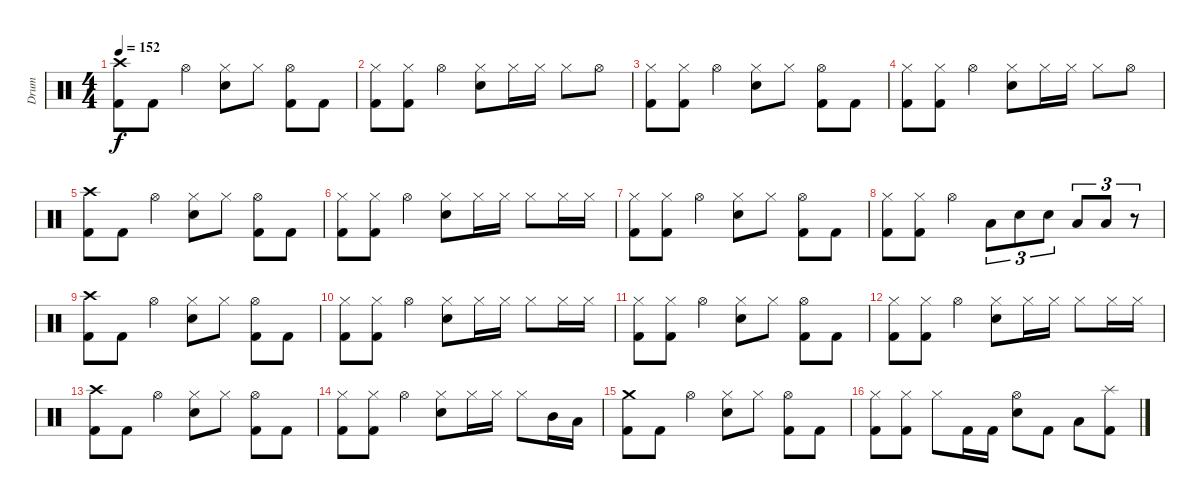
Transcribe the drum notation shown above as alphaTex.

\track ("Drum" "Drum") {instrument percussion}
\staff {score}
\articulation defaults
\ts (4 4)
\tempo 152
\clef neutral
\ks c
("Crash high (hit)" "Kick (hit) 2").8{dy f} "Kick (hit) 2".8 "Hi-Hat (open)".4 ("Hi-Hat (closed)" "Snare (hit) 2").8 "Hi-Hat (closed)".8 ("Hi-Hat (open)" "Kick (hit) 2").8 "Kick (hit) 2".8 |
("Hi-Hat (closed)" "Kick (hit) 2").8 ("Hi-Hat (closed)" "Kick (hit) 2").8 "Hi-Hat (open)".4 ("Hi-Hat (closed)" "Snare (hit) 2").8 "Hi-Hat (closed)".16 "Hi-Hat (closed)".16 "Hi-Hat (closed)".8 "Hi-Hat (open)".8 |
("Hi-Hat (closed)" "Kick (hit) 2").8 ("Hi-Hat (closed)" "Kick (hit) 2").8 "Hi-Hat (open)".4 ("Hi-Hat (closed)" "Snare (hit) 2").8 "Hi-Hat (closed)".8 ("Hi-Hat (open)" "Kick (hit) 2").8 "Kick (hit) 2".8 |
("Hi-Hat (closed)" "Kick (hit) 2").8 ("Hi-Hat (closed)" "Kick (hit) 2").8 "Hi-Hat (open)".4 ("Hi-Hat (closed)" "Snare (hit) 2").8 "Hi-Hat (closed)".16 "Hi-Hat (closed)".16 "Hi-Hat (closed)".8 "Hi-Hat (open)".8 |
("Crash high (hit)" "Kick (hit) 2").8 "Kick (hit) 2".8 "Hi-Hat (open)".4 ("Hi-Hat (closed)" "Snare (hit) 2").8 "Hi-Hat (closed)".8 ("Hi-Hat (open)" "Kick (hit) 2").8 "Kick (hit) 2".8 |
("Hi-Hat (closed)" "Kick (hit) 2").8 ("Hi-Hat (closed)" "Kick (hit) 2").8 "Hi-Hat (open)".4 ("Hi-Hat (closed)" "Snare (hit) 2").8 "Hi-Hat (closed)".16 "Hi-Hat (closed)".16 "Hi-Hat (closed)".8 "Hi-Hat (closed)".16 "Hi-Hat (closed)".16 |
("Hi-Hat (closed)" "Kick (hit) 2").8 ("Hi-Hat (closed)" "Kick (hit) 2").8 "Hi-Hat (open)".4 ("Hi-Hat (closed)" "Snare (hit) 2").8 "Hi-Hat (closed)".8 ("Hi-Hat (open)" "Kick (hit) 2").8 "Kick (hit) 2".8 |
("Hi-Hat (closed)" "Kick (hit) 2").8 ("Hi-Hat (closed)" "Kick (hit) 2").8 "Hi-Hat (open)".4 "Low Tom (hit)".8{tu (3 2)} "Snare (hit) 2".8{tu (3 2)} "Snare (hit) 2".8{tu (3 2)} "Low Floor Tom (hit)".8{tu (3 2)} "Low Floor Tom (hit)".8{tu (3 2)} r.8{tu (3 2)} |
("Crash high (hit)" "Kick (hit) 2").8 "Kick (hit) 2".8 "Hi-Hat (open)".4 ("Hi-Hat (closed)" "Snare (hit) 2").8 "Hi-Hat (closed)".8 ("Hi-Hat (open)" "Kick (hit) 2").8 "Kick (hit) 2".8 |
("Hi-Hat (closed)" "Kick (hit) 2").8 ("Hi-Hat (closed)" "Kick (hit) 2").8 "Hi-Hat (open)".4 ("Hi-Hat (closed)" "Snare (hit) 2").8 "Hi-Hat (closed)".16 "Hi-Hat (closed)".16 "Hi-Hat (closed)".8 "Hi-Hat (closed)".16 "Hi-Hat (closed)".16 |
("Hi-Hat (closed)" "Kick (hit) 2").8 ("Hi-Hat (closed)" "Kick (hit) 2").8 "Hi-Hat (open)".4 ("Hi-Hat (closed)" "Snare (hit) 2").8 "Hi-Hat (closed)".8 ("Hi-Hat (open)" "Kick (hit) 2").8 "Kick (hit) 2".8 |
("Hi-Hat (closed)" "Kick (hit) 2").8 ("Hi-Hat (closed)" "Kick (hit) 2").8 "Hi-Hat (open)".4 ("Hi-Hat (closed)" "Snare (hit) 2").8 "Hi-Hat (closed)".16 "Hi-Hat (closed)".16 "Hi-Hat (closed)".8 "Hi-Hat (closed)".16 "Hi-Hat (closed)".16 |
("Crash high (hit)" "Kick (hit) 2").8 "Kick (hit) 2".8 "Hi-Hat (open)".4 ("Hi-Hat (closed)" "Snare (hit) 2").8 "Hi-Hat (closed)".8 ("Hi-Hat (open)" "Kick (hit) 2").8 "Kick (hit) 2".8 |
("Hi-Hat (closed)" "Kick (hit) 2").8 ("Hi-Hat (closed)" "Kick (hit) 2").8 "Hi-Hat (open)".4 ("Hi-Hat (closed)" "Snare (hit) 2").8 "Hi-Hat (closed)".16 "Hi-Hat (closed)".16 "Hi-Hat (closed)".8 "Mid Tom (hit)".16 "Low Tom (hit)".16 |
("Crash medium (hit)" "Kick (hit) 2").8 "Kick (hit) 2".8 "Hi-Hat (open)".4 ("Hi-Hat (closed)" "Snare (hit) 2").8 "Hi-Hat (closed)".8 ("Hi-Hat (open)" "Kick (hit) 2").8 "Kick (hit) 2".8 |
("Hi-Hat (closed)" "Kick (hit) 2").8 ("Hi-Hat (closed)" "Kick (hit) 2").8 "Hi-Hat (closed)".8 "Kick (hit) 2".16 "Kick (hit) 2".16 ("Hi-Hat (open)" "Snare (hit) 2").8 "Kick (hit) 2".8 "Low Tom (hit)".8 ("Splash (hit)" "Kick (hit) 2").8
